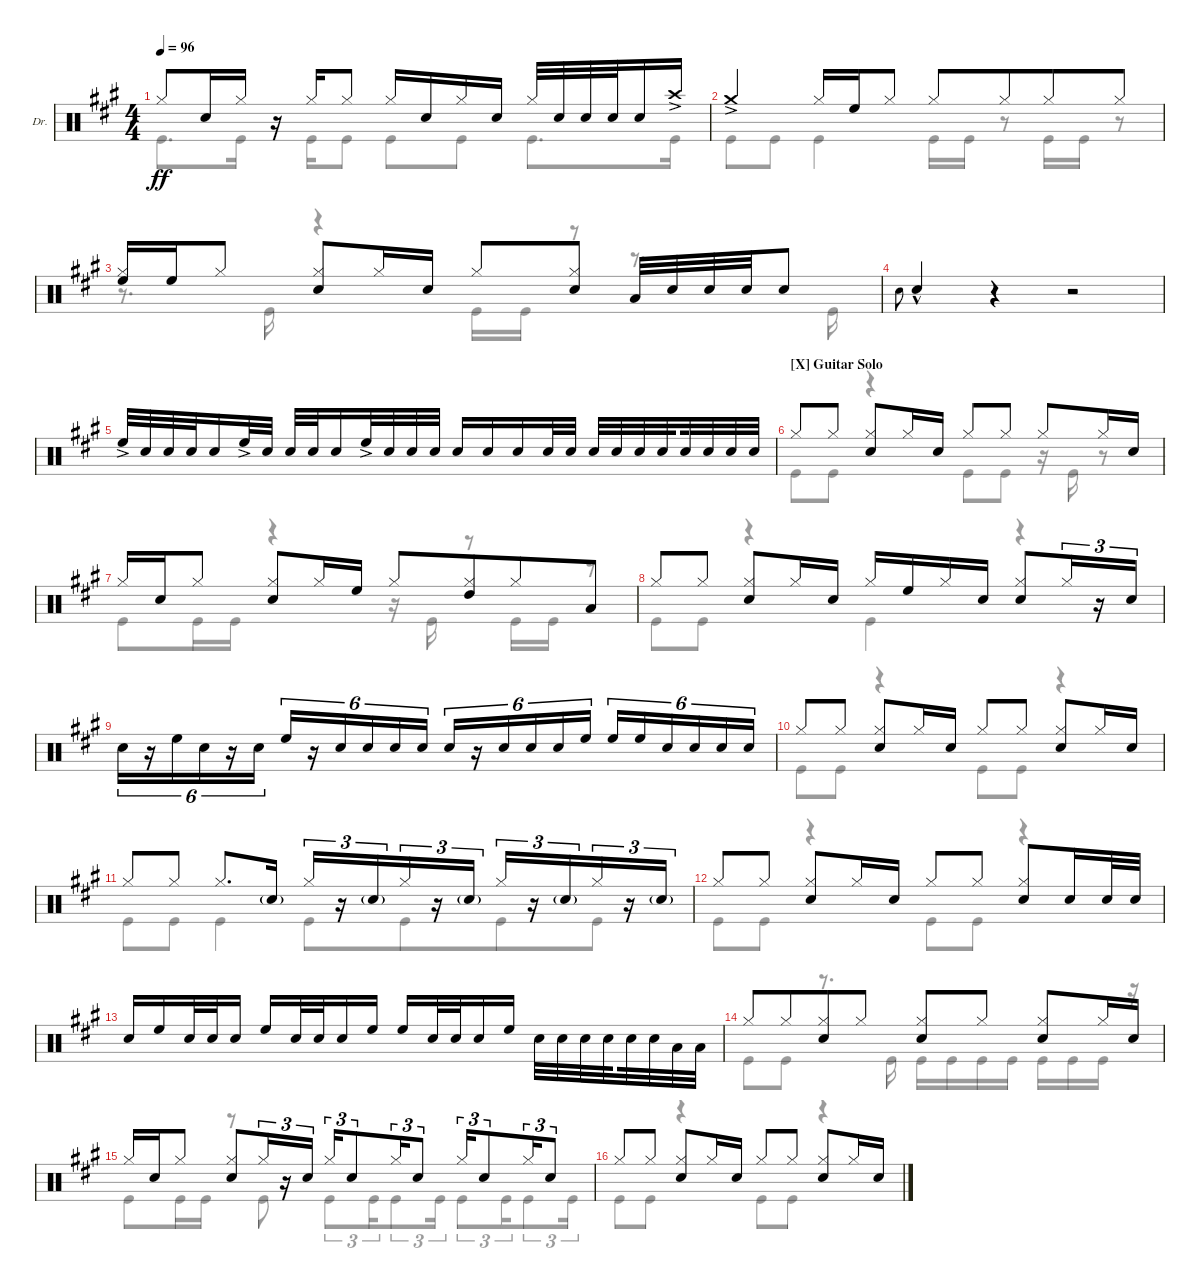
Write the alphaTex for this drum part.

\defaultSystemsLayout 4
\bracketExtendMode groupsimilarinstruments
\firstSystemTrackNameOrientation horizontal
\otherSystemsTrackNameOrientation horizontal
\track ("Drums" "Dr.") {instrument percussion}
\staff {score}
\articulation defaults
\voice
\ts (4 4)
\tempo 96
\clef neutral
\ks a "Hi-Hat (closed)".8{dy ff} "Snare (hit) 2".16 "Hi-Hat (closed)".16
r.16 "Hi-Hat (closed)".16 "Hi-Hat (closed)".8 "Hi-Hat (closed)".16 "Snare (hit) 2".16 "Hi-Hat (closed)".16 "Snare (hit) 2".16 "Hi-Hat (closed)".32 "Snare (hit) 2".32 "Snare (hit) 2".32 "Snare (hit) 2".32 "Snare (hit) 2".16 "Crash high (hit)"{ac}.16 |
"Crash medium (hit)"{ac}.4 "Hi-Hat (closed)".16 "High Floor Tom (hit)".16 "Hi-Hat (closed)".8 "Hi-Hat (closed)".8 "Hi-Hat (closed)".8{beam merge} "Hi-Hat (closed)".8 "Hi-Hat (closed)".8 |
("High Floor Tom (hit)" "Hi-Hat (closed)").16 "High Floor Tom (hit)".16 "Hi-Hat (closed)".8 ("Snare (hit) 2" "Hi-Hat (closed)").8 "Hi-Hat (closed)".16 "Snare (hit) 2".16 "Hi-Hat (closed)".8 ("Hi-Hat (closed)" "Snare (hit) 2").8 "Low Tom (hit)".32 "Snare (hit) 2".32 "Snare (hit) 2".32 "Snare (hit) 2".32 "Snare (hit) 2".8 |
"Snare (hit) 2".8{gr onbeat beam invert} "Snare (hit) 2"{hac}.4{beam invert} r.4 r.2 |
"High Floor Tom (hit)"{ac}.32{beam invert} "Snare (hit) 2".32 "Snare (hit) 2".32 "Snare (hit) 2".32 "Snare (hit) 2".16 "High Floor Tom (hit)"{ac}.32 "Snare (hit) 2".32 "Snare (hit) 2".32{beam invert} "Snare (hit) 2".32 "Snare (hit) 2".16 "High Floor Tom (hit)"{ac}.32 "Snare (hit) 2".32 "Snare (hit) 2".32 "Snare (hit) 2".32 "Snare (hit) 2".16{beam invert} "Snare (hit) 2".16 "Snare (hit) 2".16 "Snare (hit) 2".32 "Snare (hit) 2".32 "Snare (hit) 2".32{beam invert} "Snare (hit) 2".32 "Snare (hit) 2".32 "Snare (hit) 2".32{beam splitsecondary} "Snare (hit) 2".32 "Snare (hit) 2".32 "Snare (hit) 2".32 "Snare (hit) 2".32 |
\section ("X" "Guitar Solo")
"Hi-Hat (closed)".8 "Hi-Hat (closed)".8 ("Hi-Hat (closed)" "Snare (hit) 2").8 "Hi-Hat (closed)".16 "Snare (hit) 2".16 "Hi-Hat (closed)".8 "Hi-Hat (closed)".8 "Hi-Hat (closed)".8 "Hi-Hat (closed)".16 "Snare (hit) 2".16 |
"Hi-Hat (closed)".16 "Snare (hit) 2".16 "Hi-Hat (closed)".8 ("Hi-Hat (closed)" "Snare (hit) 2").8 "Hi-Hat (closed)".16 "High Floor Tom (hit)".16 "Hi-Hat (closed)".8 ("Hi-Hat (closed)" "High Tom (hit)").8{beam merge} "Hi-Hat (closed)".8 "Low Tom (hit)".8 |
"Hi-Hat (closed)".8 "Hi-Hat (closed)".8 ("Hi-Hat (closed)" "Snare (hit) 2").8 "Hi-Hat (closed)".16 "Snare (hit) 2".16 "Hi-Hat (closed)".16 "High Floor Tom (hit)".16 "Hi-Hat (closed)".16 "Snare (hit) 2".16 ("Snare (hit) 2" "Hi-Hat (closed)").8{beam merge} "Hi-Hat (closed)".16{tu (3 2)} r.16{tu (3 2)} "Snare (hit) 2".16{tu (3 2)} |
"Snare (hit) 2".16{tu (6 4)} r.16{tu (6 4)} "High Floor Tom (hit)".16{tu (6 4)} "Snare (hit) 2".16{tu (6 4)} r.16{tu (6 4)} "Snare (hit) 2".16{tu (6 4)} "High Floor Tom (hit)".16{tu (6 4)} r.16{tu (6 4)} "Snare (hit) 2".16{tu (6 4)} "Snare (hit) 2".16{tu (6 4)} "Snare (hit) 2".16{tu (6 4)} "Snare (hit) 2".16{tu (6 4)} "Snare (hit) 2".16{tu (6 4) beam invert} r.16{tu (6 4)} "Snare (hit) 2".16{tu (6 4)} "Snare (hit) 2".16{tu (6 4)} "Snare (hit) 2".16{tu (6 4)} "High Floor Tom (hit)".16{tu (6 4)} "High Floor Tom (hit)".16{tu (6 4) beam invert} "High Floor Tom (hit)".16{tu (6 4)} "Snare (hit) 2".16{tu (6 4)} "Snare (hit) 2".16{tu (6 4)} "Snare (hit) 2".16{tu (6 4)} "Snare (hit) 2".16{tu (6 4)} |
"Hi-Hat (closed)".8 "Hi-Hat (closed)".8 ("Hi-Hat (closed)" "Snare (hit) 2").8 "Hi-Hat (closed)".16 "Snare (hit) 2".16 "Hi-Hat (closed)".8 "Hi-Hat (closed)".8 ("Hi-Hat (closed)" "Snare (hit) 2").8 "Hi-Hat (closed)".16 "Snare (hit) 2".16 |
"Hi-Hat (closed)".8 "Hi-Hat (closed)".8 "Hi-Hat (closed)".8{d} "Snare (hit) 2"{g}.16 "Hi-Hat (closed)".16{tu (3 2)} r.16{tu (3 2) beam merge} "Snare (hit) 2"{g}.16{tu (3 2) beam merge} "Hi-Hat (closed)".16{tu (3 2) beam merge} r.16{tu (3 2)} "Snare (hit) 2"{g}.16{tu (3 2)} "Hi-Hat (closed)".16{tu (3 2) beam merge} r.16{tu (3 2) beam merge} "Snare (hit) 2"{g}.16{tu (3 2) beam merge} "Hi-Hat (closed)".16{tu (3 2) beam merge} r.16{tu (3 2) beam merge} "Snare (hit) 2"{g}.16{tu (3 2)} |
"Hi-Hat (closed)".8 "Hi-Hat (closed)".8 ("Hi-Hat (closed)" "Snare (hit) 2").8 "Hi-Hat (closed)".16 "Snare (hit) 2".16 "Hi-Hat (closed)".8 "Hi-Hat (closed)".8 ("Hi-Hat (closed)" "Snare (hit) 2").8 "Snare (hit) 2".16 "Snare (hit) 2".32 "Snare (hit) 2".32 |
"Snare (hit) 2".16{beam invert} "High Floor Tom (hit)".16 "Snare (hit) 2".32 "Snare (hit) 2".32 "Snare (hit) 2".16 "High Floor Tom (hit)".16{beam invert} "Snare (hit) 2".32 "Snare (hit) 2".32 "Snare (hit) 2".16 "High Floor Tom (hit)".16 "High Floor Tom (hit)".16{beam invert} "Snare (hit) 2".32 "Snare (hit) 2".32 "Snare (hit) 2".16 "High Floor Tom (hit)".16 "Snare (hit) 2".32 "Snare (hit) 2".32 "Snare (hit) 2".32 "Snare (hit) 2".32{beam splitsecondary} "Snare (hit) 2".32 "Snare (hit) 2".32 "Low Tom (hit)".32 "Low Tom (hit)".32 |
"Hi-Hat (closed)".8 "Hi-Hat (closed)".8{beam merge} ("Hi-Hat (closed)" "Snare (hit) 2").8 "Hi-Hat (closed)".8 ("Hi-Hat (closed)" "Snare (hit) 2").8 "Hi-Hat (closed)".8 ("Hi-Hat (closed)" "Snare (hit) 2").8 "Hi-Hat (closed)".16 "Snare (hit) 2".16 |
"Hi-Hat (closed)".16 "Snare (hit) 2".16 "Hi-Hat (closed)".8 ("Hi-Hat (closed)" "Snare (hit) 2").8{beam merge} "Hi-Hat (closed)".16{tu (3 2)} r.16{tu (3 2)} "Snare (hit) 2".16{tu (3 2)} "Hi-Hat (closed)".16{tu (3 2)} "Snare (hit) 2".8{tu (3 2) beam merge} "Hi-Hat (closed)".16{tu (3 2) beam merge} "Snare (hit) 2".8{tu (3 2)} "Hi-Hat (closed)".16{tu (3 2) beam merge} "Snare (hit) 2".8{tu (3 2) beam merge} "Hi-Hat (closed)".16{tu (3 2) beam merge} "Snare (hit) 2".8{tu (3 2)} |
"Hi-Hat (closed)".8 "Hi-Hat (closed)".8 ("Hi-Hat (closed)" "Snare (hit) 2").8 "Hi-Hat (closed)".16 "Snare (hit) 2".16 "Hi-Hat (closed)".8 "Hi-Hat (closed)".8 ("Hi-Hat (closed)" "Snare (hit) 2").8 "Hi-Hat (closed)".16 "Snare (hit) 2".16
\voice
\clef neutral
\ottava regular
\simile none
\ks a "Kick (hit)".8{d dy ff} "Kick (hit)".16
r.16 "Kick (hit)".16 "Kick (hit)".8 "Kick (hit)".8 "Kick (hit)".8 "Kick (hit)".8{d} "Kick (hit)".16 |
"Kick (hit)".8 "Kick (hit)".8 "Kick (hit)".4 "Kick (hit)".16 "Kick (hit)".16 r.8 "Kick (hit)".16 "Kick (hit)".16 r.8 |
r.8{d} "Kick (hit)".16 r.4 "Kick (hit)".16 "Kick (hit)".16 r.8 r.8{d} "Kick (hit)".16 |
|
|
"Kick (hit)".8 "Kick (hit)".8 r.4 "Kick (hit)".8 "Kick (hit)".8 r.16 "Kick (hit)".16 r.8 |
"Kick (hit)".8 "Kick (hit)".16 "Kick (hit)".16 r.4 r.16 "Kick (hit)".16 r.8 "Kick (hit)".16 "Kick (hit)".16 r.8 |
"Kick (hit)".8 "Kick (hit)".8 r.4 "Kick (hit)".4 r.4 |
|
"Kick (hit)".8 "Kick (hit)".8 r.4 "Kick (hit)".8 "Kick (hit)".8 r.4 |
"Kick (hit)".8 "Kick (hit)".8 "Kick (hit)".4 "Kick (hit)".8 "Kick (hit)".8{beam merge} "Kick (hit)".8{beam merge} "Kick (hit)".8{beam merge} |
"Kick (hit)".8 "Kick (hit)".8 r.4 "Kick (hit)".8 "Kick (hit)".8 r.4 |
|
"Kick (hit)".8 "Kick (hit)".8 r.8{d} "Kick (hit)".16 "Kick (hit)".16 "Kick (hit)".16 "Kick (hit)".16 "Kick (hit)".16 "Kick (hit)".16 "Kick (hit)".16 "Kick (hit)".16 r.16 |
"Kick (hit)".8 "Kick (hit)".16 "Kick (hit)".16 r.8 "Kick (hit)".8 "Kick (hit)".8{tu (3 2) beam merge} "Kick (hit)".16{tu (3 2) beam merge} "Kick (hit)".8{tu (3 2) beam merge} "Kick (hit)".16{tu (3 2) beam split} "Kick (hit)".8{tu (3 2)} "Kick (hit)".16{tu (3 2) beam merge} "Kick (hit)".8{tu (3 2)} "Kick (hit)".16{tu (3 2)} |
"Kick (hit)".8 "Kick (hit)".8 r.4 "Kick (hit)".8 "Kick (hit)".8 r.4
